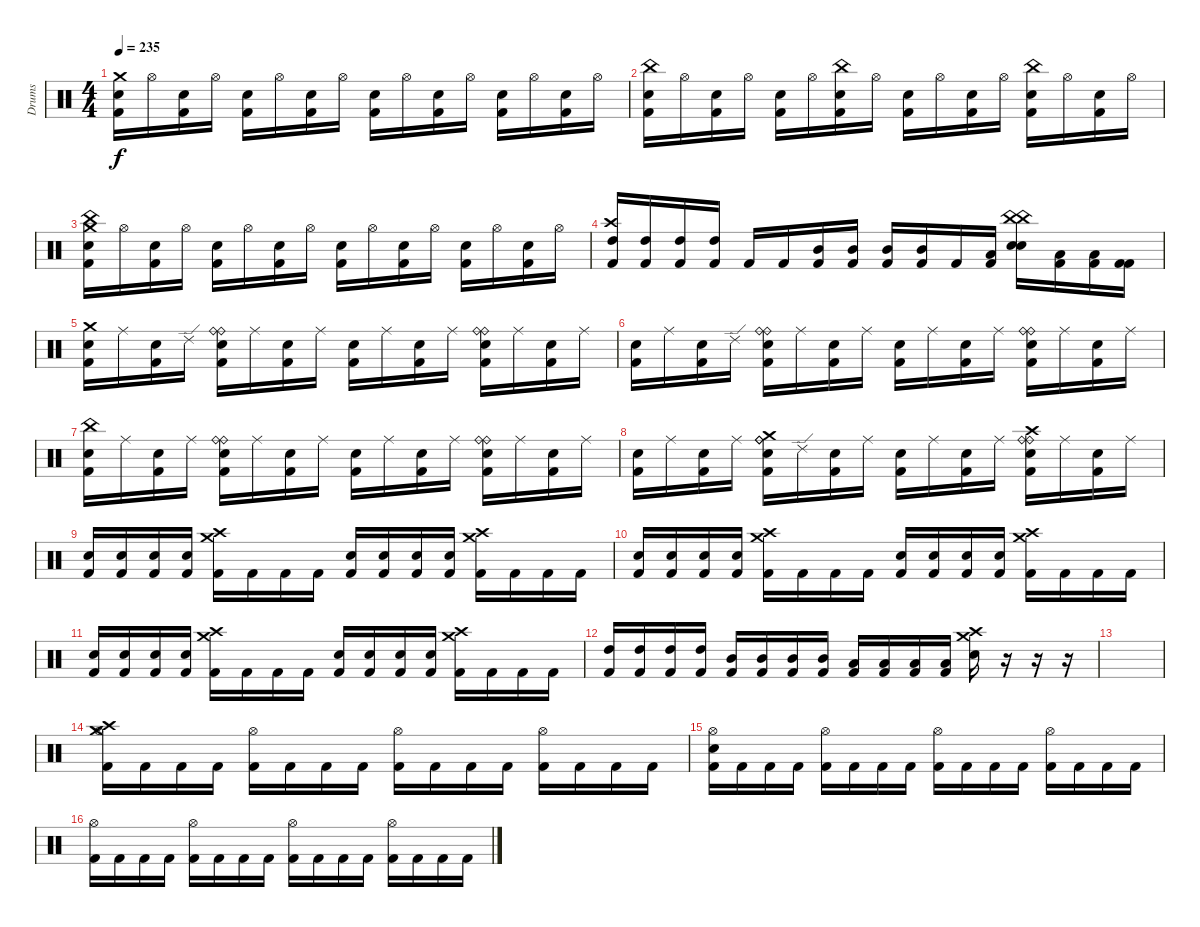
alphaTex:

\track ("Drums" "Drums") {instrument percussion}
\staff {score}
\articulation defaults
\ts (4 4)
\tempo 235
\clef neutral
\ks c
("Crash medium (hit)" "Electric Snare (hit)" "Kick (hit) 2").16{dy f} "Hi-Hat (open)".16 ("Electric Snare (hit)" "Kick (hit) 2").16 "Hi-Hat (open)".16 ("Electric Snare (hit)" "Kick (hit) 2").16 "Hi-Hat (open)".16 ("Electric Snare (hit)" "Kick (hit) 2").16 "Hi-Hat (open)".16 ("Electric Snare (hit)" "Kick (hit) 2").16 "Hi-Hat (open)".16 ("Electric Snare (hit)" "Kick (hit) 2").16 "Hi-Hat (open)".16 ("Electric Snare (hit)" "Kick (hit) 2").16 "Hi-Hat (open)".16 ("Electric Snare (hit)" "Kick (hit) 2").16 "Hi-Hat (open)".16 |
("China (hit)" "Electric Snare (hit)" "Kick (hit) 2").16 "Hi-Hat (open)".16 ("Electric Snare (hit)" "Kick (hit) 2").16 "Hi-Hat (open)".16 ("Electric Snare (hit)" "Kick (hit) 2").16 "Hi-Hat (open)".16 ("China (hit)" "Electric Snare (hit)" "Kick (hit) 2").16 "Hi-Hat (open)".16 ("Electric Snare (hit)" "Kick (hit) 2").16 "Hi-Hat (open)".16 ("Electric Snare (hit)" "Kick (hit) 2").16 "Hi-Hat (open)".16 ("China (hit)" "Electric Snare (hit)" "Kick (hit) 2").16 "Hi-Hat (open)".16 ("Electric Snare (hit)" "Kick (hit) 2").16 "Hi-Hat (open)".16 |
("China (hit)" "Crash medium (hit)" "Electric Snare (hit)" "Kick (hit) 2").16 "Hi-Hat (open)".16 ("Electric Snare (hit)" "Kick (hit) 2").16 "Hi-Hat (open)".16 ("Electric Snare (hit)" "Kick (hit) 2").16 "Hi-Hat (open)".16 ("Electric Snare (hit)" "Kick (hit) 2").16 "Hi-Hat (open)".16 ("Electric Snare (hit)" "Kick (hit) 2").16 "Hi-Hat (open)".16 ("Electric Snare (hit)" "Kick (hit) 2").16 "Hi-Hat (open)".16 ("Electric Snare (hit)" "Kick (hit) 2").16 "Hi-Hat (open)".16 ("Electric Snare (hit)" "Kick (hit) 2").16 "Hi-Hat (open)".16 |
("Crash high (hit)" "High Tom (hit)" "Kick (hit) 2").16 ("High Tom (hit)" "Kick (hit) 2").16 ("High Tom (hit)" "Kick (hit) 2").16 ("High Tom (hit)" "Kick (hit) 2").16 "Kick (hit) 2".16 "Kick (hit) 2".16 ("Mid Tom (hit)" "Kick (hit) 2").16 ("Mid Tom (hit)" "Kick (hit) 2").16 ("Mid Tom (hit)" "Kick (hit) 2").16 ("Mid Tom (hit)" "Kick (hit) 2").16 "Kick (hit) 2".16 ("Low Tom (hit)" "Kick (hit) 2").16 ("China (hit)" "China (hit)" "Electric Snare (hit)" "Electric Snare (hit)").16 ("Low Tom (hit)" "Kick (hit) 2").16 ("Low Tom (hit)" "Kick (hit) 2").16 ("Kick (hit) 2" "Kick (hit) 2").16 |
("Crash medium (hit)" "Electric Snare (hit)" "Kick (hit) 2").16 "Ride (middle)".16 ("Electric Snare (hit)" "Kick (hit) 2").16 "Ride (edge) 2".16 ("Ride (bell)" "Ride (bell)" "Electric Snare (hit)" "Kick (hit) 2").16 "Ride (middle)".16 ("Electric Snare (hit)" "Kick (hit) 2").16 "Ride (middle)".16 ("Electric Snare (hit)" "Kick (hit) 2").16 "Ride (middle)".16 ("Electric Snare (hit)" "Kick (hit) 2").16 "Ride (middle)".16 ("Ride (bell)" "Ride (bell)" "Electric Snare (hit)" "Kick (hit) 2").16 "Ride (middle)".16 ("Electric Snare (hit)" "Kick (hit) 2").16 "Ride (middle)".16 |
("Electric Snare (hit)" "Kick (hit) 2").16 "Ride (middle)".16 ("Electric Snare (hit)" "Kick (hit) 2").16 "Ride (edge) 2".16 ("Ride (bell)" "Ride (bell)" "Electric Snare (hit)" "Kick (hit) 2").16 "Ride (middle)".16 ("Electric Snare (hit)" "Kick (hit) 2").16 "Ride (middle)".16 ("Electric Snare (hit)" "Kick (hit) 2").16 "Ride (middle)".16 ("Electric Snare (hit)" "Kick (hit) 2").16 "Ride (middle)".16 ("Ride (bell)" "Ride (bell)" "Electric Snare (hit)" "Kick (hit) 2").16 "Ride (middle)".16 ("Electric Snare (hit)" "Kick (hit) 2").16 "Ride (middle)".16 |
("China (hit)" "Electric Snare (hit)" "Kick (hit) 2").16 "Ride (middle)".16 ("Electric Snare (hit)" "Kick (hit) 2").16 "Ride (middle)".16 ("Ride (bell)" "Ride (bell)" "Electric Snare (hit)" "Kick (hit) 2").16 "Ride (middle)".16 ("Electric Snare (hit)" "Kick (hit) 2").16 "Ride (middle)".16 ("Electric Snare (hit)" "Kick (hit) 2").16 "Ride (middle)".16 ("Electric Snare (hit)" "Kick (hit) 2").16 "Ride (middle)".16 ("Ride (bell)" "Ride (bell)" "Electric Snare (hit)" "Kick (hit) 2").16 "Ride (middle)".16 ("Electric Snare (hit)" "Kick (hit) 2").16 "Ride (middle)".16 |
("Electric Snare (hit)" "Kick (hit) 2").16 "Ride (middle)".16 ("Electric Snare (hit)" "Kick (hit) 2").16 "Ride (middle)".16 ("Crash medium (hit)" "Ride (bell)" "Ride (bell)" "Electric Snare (hit)" "Kick (hit) 2").16 "Ride (edge) 2".16 ("Electric Snare (hit)" "Kick (hit) 2").16 "Ride (middle)".16 ("Electric Snare (hit)" "Kick (hit) 2").16 "Ride (middle)".16 ("Electric Snare (hit)" "Kick (hit) 2").16 "Ride (middle)".16 ("Crash high (hit)" "Ride (bell)" "Ride (bell)" "Electric Snare (hit)" "Kick (hit) 2").16 "Ride (middle)".16 ("Electric Snare (hit)" "Kick (hit) 2").16 "Ride (middle)".16 |
("Electric Snare (hit)" "Kick (hit) 2").16 ("Electric Snare (hit)" "Kick (hit) 2").16 ("Electric Snare (hit)" "Kick (hit) 2").16 ("Electric Snare (hit)" "Kick (hit) 2").16 ("Crash high (hit)" "Crash medium (hit)" "Kick (hit) 2").16 "Kick (hit) 2".16 "Kick (hit) 2".16 "Kick (hit) 2".16 ("Electric Snare (hit)" "Kick (hit) 2").16 ("Electric Snare (hit)" "Kick (hit) 2").16 ("Electric Snare (hit)" "Kick (hit) 2").16 ("Electric Snare (hit)" "Kick (hit) 2").16 ("Crash high (hit)" "Crash medium (hit)" "Kick (hit) 2").16 "Kick (hit) 2".16 "Kick (hit) 2".16 "Kick (hit) 2".16 |
("Electric Snare (hit)" "Kick (hit) 2").16 ("Electric Snare (hit)" "Kick (hit) 2").16 ("Electric Snare (hit)" "Kick (hit) 2").16 ("Electric Snare (hit)" "Kick (hit) 2").16 ("Crash high (hit)" "Crash medium (hit)" "Kick (hit) 2").16 "Kick (hit) 2".16 "Kick (hit) 2".16 "Kick (hit) 2".16 ("Electric Snare (hit)" "Kick (hit) 2").16 ("Electric Snare (hit)" "Kick (hit) 2").16 ("Electric Snare (hit)" "Kick (hit) 2").16 ("Electric Snare (hit)" "Kick (hit) 2").16 ("Crash high (hit)" "Crash medium (hit)" "Kick (hit) 2").16 "Kick (hit) 2".16 "Kick (hit) 2".16 "Kick (hit) 2".16 |
("Electric Snare (hit)" "Kick (hit) 2").16 ("Electric Snare (hit)" "Kick (hit) 2").16 ("Electric Snare (hit)" "Kick (hit) 2").16 ("Electric Snare (hit)" "Kick (hit) 2").16 ("Crash high (hit)" "Crash medium (hit)" "Kick (hit) 2").16 "Kick (hit) 2".16 "Kick (hit) 2".16 "Kick (hit) 2".16 ("Electric Snare (hit)" "Kick (hit) 2").16 ("Electric Snare (hit)" "Kick (hit) 2").16 ("Electric Snare (hit)" "Kick (hit) 2").16 ("Electric Snare (hit)" "Kick (hit) 2").16 ("Crash high (hit)" "Crash medium (hit)" "Kick (hit) 2").16 "Kick (hit) 2".16 "Kick (hit) 2".16 "Kick (hit) 2".16 |
("High Tom (hit)" "Kick (hit) 2").16 ("High Tom (hit)" "Kick (hit) 2").16 ("High Tom (hit)" "Kick (hit) 2").16 ("High Tom (hit)" "Kick (hit) 2").16 ("Mid Tom (hit)" "Kick (hit) 2").16 ("Mid Tom (hit)" "Kick (hit) 2").16 ("Mid Tom (hit)" "Kick (hit) 2").16 ("Mid Tom (hit)" "Kick (hit) 2").16 ("Low Tom (hit)" "Kick (hit) 2").16 ("Low Tom (hit)" "Kick (hit) 2").16 ("Low Tom (hit)" "Kick (hit) 2").16 ("Low Tom (hit)" "Kick (hit) 2").16 ("Crash high (hit)" "Crash medium (hit)" "Electric Snare (hit)").16 r.16 r.16 r.16 |
|
("Crash medium (hit)" "Crash high (hit)" "Hi-Hat (open)" "Kick (hit) 2").16 "Kick (hit) 2".16 "Kick (hit) 2".16 "Kick (hit) 2".16 ("Hi-Hat (open)" "Kick (hit) 2").16 "Kick (hit) 2".16 "Kick (hit) 2".16 "Kick (hit) 2".16 ("Hi-Hat (open)" "Kick (hit) 2").16 "Kick (hit) 2".16 "Kick (hit) 2".16 "Kick (hit) 2".16 ("Hi-Hat (open)" "Kick (hit) 2").16 "Kick (hit) 2".16 "Kick (hit) 2".16 "Kick (hit) 2".16 |
("Electric Snare (hit)" "Hi-Hat (open)" "Kick (hit) 2").16 "Kick (hit) 2".16 "Kick (hit) 2".16 "Kick (hit) 2".16 ("Hi-Hat (open)" "Kick (hit) 2").16 "Kick (hit) 2".16 "Kick (hit) 2".16 "Kick (hit) 2".16 ("Hi-Hat (open)" "Kick (hit) 2").16 "Kick (hit) 2".16 "Kick (hit) 2".16 "Kick (hit) 2".16 ("Hi-Hat (open)" "Kick (hit) 2").16 "Kick (hit) 2".16 "Kick (hit) 2".16 "Kick (hit) 2".16 |
("Hi-Hat (open)" "Kick (hit) 2").16 "Kick (hit) 2".16 "Kick (hit) 2".16 "Kick (hit) 2".16 ("Hi-Hat (open)" "Kick (hit) 2").16 "Kick (hit) 2".16 "Kick (hit) 2".16 "Kick (hit) 2".16 ("Hi-Hat (open)" "Kick (hit) 2").16 "Kick (hit) 2".16 "Kick (hit) 2".16 "Kick (hit) 2".16 ("Hi-Hat (open)" "Kick (hit) 2").16 "Kick (hit) 2".16 "Kick (hit) 2".16 "Kick (hit) 2".16
